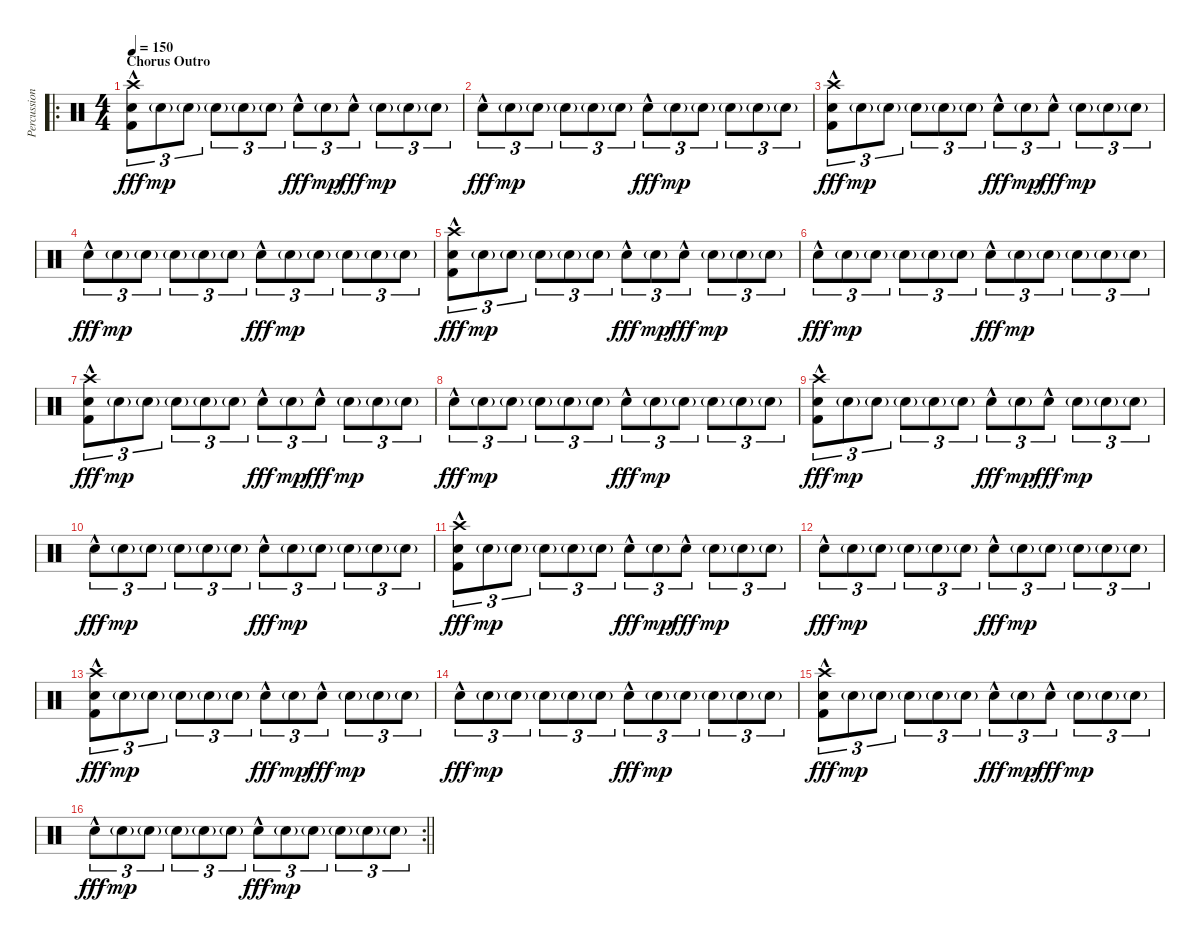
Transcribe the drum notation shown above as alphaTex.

\track ("Percussion" "Percussion") {instrument percussion}
\staff {score}
\articulation defaults
\ro
\ts (4 4)
\section ("" "Chorus Outro")
\tempo 150
\clef neutral
\ks c
("Crash high (hit)" "Electric Snare (hit)"{hac} "Kick (hit) 2").8{tu (3 2) dy fff} "Electric Snare (hit)"{g}.8{tu (3 2) dy mp} "Electric Snare (hit)"{g}.8{tu (3 2)} "Electric Snare (hit)"{g}.8{tu (3 2)} "Electric Snare (hit)"{g}.8{tu (3 2)} "Electric Snare (hit)"{g}.8{tu (3 2)} "Electric Snare (hit)"{hac}.8{tu (3 2) dy fff} "Electric Snare (hit)"{g}.8{tu (3 2) dy mp} "Electric Snare (hit)"{hac}.8{tu (3 2) dy fff} "Electric Snare (hit)"{g}.8{tu (3 2) dy mp} "Electric Snare (hit)"{g}.8{tu (3 2)} "Electric Snare (hit)"{g}.8{tu (3 2)} |
"Electric Snare (hit)"{hac}.8{tu (3 2) dy fff} "Electric Snare (hit)"{g}.8{tu (3 2) dy mp} "Electric Snare (hit)"{g}.8{tu (3 2)} "Electric Snare (hit)"{g}.8{tu (3 2)} "Electric Snare (hit)"{g}.8{tu (3 2)} "Electric Snare (hit)"{g}.8{tu (3 2)} "Electric Snare (hit)"{hac}.8{tu (3 2) dy fff} "Electric Snare (hit)"{g}.8{tu (3 2) dy mp} "Electric Snare (hit)"{g}.8{tu (3 2)} "Electric Snare (hit)"{g}.8{tu (3 2)} "Electric Snare (hit)"{g}.8{tu (3 2)} "Electric Snare (hit)"{g}.8{tu (3 2)} |
("Crash high (hit)" "Electric Snare (hit)"{hac} "Kick (hit) 2").8{tu (3 2) dy fff} "Electric Snare (hit)"{g}.8{tu (3 2) dy mp} "Electric Snare (hit)"{g}.8{tu (3 2)} "Electric Snare (hit)"{g}.8{tu (3 2)} "Electric Snare (hit)"{g}.8{tu (3 2)} "Electric Snare (hit)"{g}.8{tu (3 2)} "Electric Snare (hit)"{hac}.8{tu (3 2) dy fff} "Electric Snare (hit)"{g}.8{tu (3 2) dy mp} "Electric Snare (hit)"{hac}.8{tu (3 2) dy fff} "Electric Snare (hit)"{g}.8{tu (3 2) dy mp} "Electric Snare (hit)"{g}.8{tu (3 2)} "Electric Snare (hit)"{g}.8{tu (3 2)} |
"Electric Snare (hit)"{hac}.8{tu (3 2) dy fff} "Electric Snare (hit)"{g}.8{tu (3 2) dy mp} "Electric Snare (hit)"{g}.8{tu (3 2)} "Electric Snare (hit)"{g}.8{tu (3 2)} "Electric Snare (hit)"{g}.8{tu (3 2)} "Electric Snare (hit)"{g}.8{tu (3 2)} "Electric Snare (hit)"{hac}.8{tu (3 2) dy fff} "Electric Snare (hit)"{g}.8{tu (3 2) dy mp} "Electric Snare (hit)"{g}.8{tu (3 2)} "Electric Snare (hit)"{g}.8{tu (3 2)} "Electric Snare (hit)"{g}.8{tu (3 2)} "Electric Snare (hit)"{g}.8{tu (3 2)} |
("Crash high (hit)" "Electric Snare (hit)"{hac} "Kick (hit) 2").8{tu (3 2) dy fff} "Electric Snare (hit)"{g}.8{tu (3 2) dy mp} "Electric Snare (hit)"{g}.8{tu (3 2)} "Electric Snare (hit)"{g}.8{tu (3 2)} "Electric Snare (hit)"{g}.8{tu (3 2)} "Electric Snare (hit)"{g}.8{tu (3 2)} "Electric Snare (hit)"{hac}.8{tu (3 2) dy fff} "Electric Snare (hit)"{g}.8{tu (3 2) dy mp} "Electric Snare (hit)"{hac}.8{tu (3 2) dy fff} "Electric Snare (hit)"{g}.8{tu (3 2) dy mp} "Electric Snare (hit)"{g}.8{tu (3 2)} "Electric Snare (hit)"{g}.8{tu (3 2)} |
"Electric Snare (hit)"{hac}.8{tu (3 2) dy fff} "Electric Snare (hit)"{g}.8{tu (3 2) dy mp} "Electric Snare (hit)"{g}.8{tu (3 2)} "Electric Snare (hit)"{g}.8{tu (3 2)} "Electric Snare (hit)"{g}.8{tu (3 2)} "Electric Snare (hit)"{g}.8{tu (3 2)} "Electric Snare (hit)"{hac}.8{tu (3 2) dy fff} "Electric Snare (hit)"{g}.8{tu (3 2) dy mp} "Electric Snare (hit)"{g}.8{tu (3 2)} "Electric Snare (hit)"{g}.8{tu (3 2)} "Electric Snare (hit)"{g}.8{tu (3 2)} "Electric Snare (hit)"{g}.8{tu (3 2)} |
("Crash high (hit)" "Electric Snare (hit)"{hac} "Kick (hit) 2").8{tu (3 2) dy fff} "Electric Snare (hit)"{g}.8{tu (3 2) dy mp} "Electric Snare (hit)"{g}.8{tu (3 2)} "Electric Snare (hit)"{g}.8{tu (3 2)} "Electric Snare (hit)"{g}.8{tu (3 2)} "Electric Snare (hit)"{g}.8{tu (3 2)} "Electric Snare (hit)"{hac}.8{tu (3 2) dy fff} "Electric Snare (hit)"{g}.8{tu (3 2) dy mp} "Electric Snare (hit)"{hac}.8{tu (3 2) dy fff} "Electric Snare (hit)"{g}.8{tu (3 2) dy mp} "Electric Snare (hit)"{g}.8{tu (3 2)} "Electric Snare (hit)"{g}.8{tu (3 2)} |
"Electric Snare (hit)"{hac}.8{tu (3 2) dy fff} "Electric Snare (hit)"{g}.8{tu (3 2) dy mp} "Electric Snare (hit)"{g}.8{tu (3 2)} "Electric Snare (hit)"{g}.8{tu (3 2)} "Electric Snare (hit)"{g}.8{tu (3 2)} "Electric Snare (hit)"{g}.8{tu (3 2)} "Electric Snare (hit)"{hac}.8{tu (3 2) dy fff} "Electric Snare (hit)"{g}.8{tu (3 2) dy mp} "Electric Snare (hit)"{g}.8{tu (3 2)} "Electric Snare (hit)"{g}.8{tu (3 2)} "Electric Snare (hit)"{g}.8{tu (3 2)} "Electric Snare (hit)"{g}.8{tu (3 2)} |
("Crash high (hit)" "Electric Snare (hit)"{hac} "Kick (hit) 2").8{tu (3 2) dy fff} "Electric Snare (hit)"{g}.8{tu (3 2) dy mp} "Electric Snare (hit)"{g}.8{tu (3 2)} "Electric Snare (hit)"{g}.8{tu (3 2)} "Electric Snare (hit)"{g}.8{tu (3 2)} "Electric Snare (hit)"{g}.8{tu (3 2)} "Electric Snare (hit)"{hac}.8{tu (3 2) dy fff} "Electric Snare (hit)"{g}.8{tu (3 2) dy mp} "Electric Snare (hit)"{hac}.8{tu (3 2) dy fff} "Electric Snare (hit)"{g}.8{tu (3 2) dy mp} "Electric Snare (hit)"{g}.8{tu (3 2)} "Electric Snare (hit)"{g}.8{tu (3 2)} |
"Electric Snare (hit)"{hac}.8{tu (3 2) dy fff} "Electric Snare (hit)"{g}.8{tu (3 2) dy mp} "Electric Snare (hit)"{g}.8{tu (3 2)} "Electric Snare (hit)"{g}.8{tu (3 2)} "Electric Snare (hit)"{g}.8{tu (3 2)} "Electric Snare (hit)"{g}.8{tu (3 2)} "Electric Snare (hit)"{hac}.8{tu (3 2) dy fff} "Electric Snare (hit)"{g}.8{tu (3 2) dy mp} "Electric Snare (hit)"{g}.8{tu (3 2)} "Electric Snare (hit)"{g}.8{tu (3 2)} "Electric Snare (hit)"{g}.8{tu (3 2)} "Electric Snare (hit)"{g}.8{tu (3 2)} |
("Crash high (hit)" "Electric Snare (hit)"{hac} "Kick (hit) 2").8{tu (3 2) dy fff} "Electric Snare (hit)"{g}.8{tu (3 2) dy mp} "Electric Snare (hit)"{g}.8{tu (3 2)} "Electric Snare (hit)"{g}.8{tu (3 2)} "Electric Snare (hit)"{g}.8{tu (3 2)} "Electric Snare (hit)"{g}.8{tu (3 2)} "Electric Snare (hit)"{hac}.8{tu (3 2) dy fff} "Electric Snare (hit)"{g}.8{tu (3 2) dy mp} "Electric Snare (hit)"{hac}.8{tu (3 2) dy fff} "Electric Snare (hit)"{g}.8{tu (3 2) dy mp} "Electric Snare (hit)"{g}.8{tu (3 2)} "Electric Snare (hit)"{g}.8{tu (3 2)} |
"Electric Snare (hit)"{hac}.8{tu (3 2) dy fff} "Electric Snare (hit)"{g}.8{tu (3 2) dy mp} "Electric Snare (hit)"{g}.8{tu (3 2)} "Electric Snare (hit)"{g}.8{tu (3 2)} "Electric Snare (hit)"{g}.8{tu (3 2)} "Electric Snare (hit)"{g}.8{tu (3 2)} "Electric Snare (hit)"{hac}.8{tu (3 2) dy fff} "Electric Snare (hit)"{g}.8{tu (3 2) dy mp} "Electric Snare (hit)"{g}.8{tu (3 2)} "Electric Snare (hit)"{g}.8{tu (3 2)} "Electric Snare (hit)"{g}.8{tu (3 2)} "Electric Snare (hit)"{g}.8{tu (3 2)} |
("Crash high (hit)" "Electric Snare (hit)"{hac} "Kick (hit) 2").8{tu (3 2) dy fff} "Electric Snare (hit)"{g}.8{tu (3 2) dy mp} "Electric Snare (hit)"{g}.8{tu (3 2)} "Electric Snare (hit)"{g}.8{tu (3 2)} "Electric Snare (hit)"{g}.8{tu (3 2)} "Electric Snare (hit)"{g}.8{tu (3 2)} "Electric Snare (hit)"{hac}.8{tu (3 2) dy fff} "Electric Snare (hit)"{g}.8{tu (3 2) dy mp} "Electric Snare (hit)"{hac}.8{tu (3 2) dy fff} "Electric Snare (hit)"{g}.8{tu (3 2) dy mp} "Electric Snare (hit)"{g}.8{tu (3 2)} "Electric Snare (hit)"{g}.8{tu (3 2)} |
"Electric Snare (hit)"{hac}.8{tu (3 2) dy fff} "Electric Snare (hit)"{g}.8{tu (3 2) dy mp} "Electric Snare (hit)"{g}.8{tu (3 2)} "Electric Snare (hit)"{g}.8{tu (3 2)} "Electric Snare (hit)"{g}.8{tu (3 2)} "Electric Snare (hit)"{g}.8{tu (3 2)} "Electric Snare (hit)"{hac}.8{tu (3 2) dy fff} "Electric Snare (hit)"{g}.8{tu (3 2) dy mp} "Electric Snare (hit)"{g}.8{tu (3 2)} "Electric Snare (hit)"{g}.8{tu (3 2)} "Electric Snare (hit)"{g}.8{tu (3 2)} "Electric Snare (hit)"{g}.8{tu (3 2)} |
("Crash high (hit)" "Electric Snare (hit)"{hac} "Kick (hit) 2").8{tu (3 2) dy fff} "Electric Snare (hit)"{g}.8{tu (3 2) dy mp} "Electric Snare (hit)"{g}.8{tu (3 2)} "Electric Snare (hit)"{g}.8{tu (3 2)} "Electric Snare (hit)"{g}.8{tu (3 2)} "Electric Snare (hit)"{g}.8{tu (3 2)} "Electric Snare (hit)"{hac}.8{tu (3 2) dy fff} "Electric Snare (hit)"{g}.8{tu (3 2) dy mp} "Electric Snare (hit)"{hac}.8{tu (3 2) dy fff} "Electric Snare (hit)"{g}.8{tu (3 2) dy mp} "Electric Snare (hit)"{g}.8{tu (3 2)} "Electric Snare (hit)"{g}.8{tu (3 2)} |
\rc 2
\barLineRight lightlight "Electric Snare (hit)"{hac}.8{tu (3 2) dy fff} "Electric Snare (hit)"{g}.8{tu (3 2) dy mp} "Electric Snare (hit)"{g}.8{tu (3 2)} "Electric Snare (hit)"{g}.8{tu (3 2)} "Electric Snare (hit)"{g}.8{tu (3 2)} "Electric Snare (hit)"{g}.8{tu (3 2)} "Electric Snare (hit)"{hac}.8{tu (3 2) dy fff} "Electric Snare (hit)"{g}.8{tu (3 2) dy mp} "Electric Snare (hit)"{g}.8{tu (3 2)} "Electric Snare (hit)"{g}.8{tu (3 2)} "Electric Snare (hit)"{g}.8{tu (3 2)} "Electric Snare (hit)"{g}.8{tu (3 2)}
